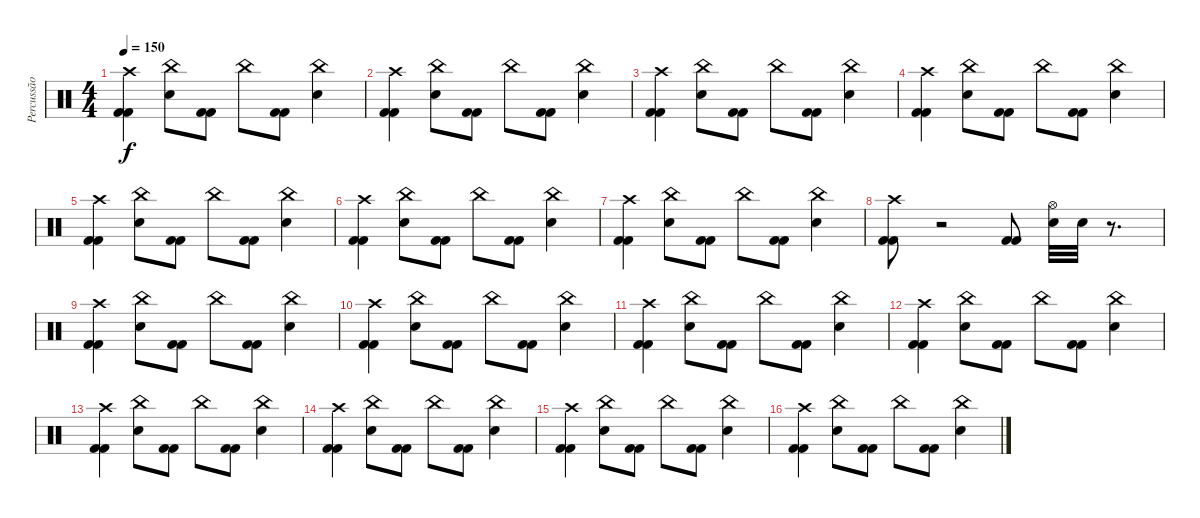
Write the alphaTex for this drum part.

\track ("Percussão" "Percussão") {instrument percussion}
\staff {score}
\articulation defaults
\ts (4 4)
\tempo 150
\clef neutral
\ks c
("Crash high (hit)" "Kick (hit) 2" "Kick (hit) 2").4{dy f} ("China (hit)" "Electric Snare (hit)").8 ("Kick (hit) 2" "Kick (hit) 2").8 "China (hit)".8 ("Kick (hit) 2" "Kick (hit) 2").8 ("China (hit)" "Electric Snare (hit)").4 |
("Crash high (hit)" "Kick (hit) 2" "Kick (hit) 2").4 ("China (hit)" "Electric Snare (hit)").8 ("Kick (hit) 2" "Kick (hit) 2").8 "China (hit)".8 ("Kick (hit) 2" "Kick (hit) 2").8 ("China (hit)" "Electric Snare (hit)").4 |
("Crash high (hit)" "Kick (hit) 2" "Kick (hit) 2").4 ("China (hit)" "Electric Snare (hit)").8 ("Kick (hit) 2" "Kick (hit) 2").8 "China (hit)".8 ("Kick (hit) 2" "Kick (hit) 2").8 ("China (hit)" "Electric Snare (hit)").4 |
("Crash high (hit)" "Kick (hit) 2" "Kick (hit) 2").4 ("China (hit)" "Electric Snare (hit)").8 ("Kick (hit) 2" "Kick (hit) 2").8 "China (hit)".8 ("Kick (hit) 2" "Kick (hit) 2").8 ("China (hit)" "Electric Snare (hit)").4 |
("Crash high (hit)" "Kick (hit) 2" "Kick (hit) 2").4 ("China (hit)" "Electric Snare (hit)").8 ("Kick (hit) 2" "Kick (hit) 2").8 "China (hit)".8 ("Kick (hit) 2" "Kick (hit) 2").8 ("China (hit)" "Electric Snare (hit)").4 |
("Crash high (hit)" "Kick (hit) 2" "Kick (hit) 2").4 ("China (hit)" "Electric Snare (hit)").8 ("Kick (hit) 2" "Kick (hit) 2").8 "China (hit)".8 ("Kick (hit) 2" "Kick (hit) 2").8 ("China (hit)" "Electric Snare (hit)").4 |
("Crash high (hit)" "Kick (hit) 2" "Kick (hit) 2").4 ("China (hit)" "Electric Snare (hit)").8 ("Kick (hit) 2" "Kick (hit) 2").8 "China (hit)".8 ("Kick (hit) 2" "Kick (hit) 2").8 ("China (hit)" "Electric Snare (hit)").4 |
("Crash high (hit)" "Kick (hit) 2" "Kick (hit) 2").8 r.2 ("Kick (hit) 2" "Kick (hit) 2").8 ("Hi-Hat (open)" "Electric Snare (hit)").32 "Electric Snare (hit)".32 r.8{d} |
("Crash high (hit)" "Kick (hit) 2" "Kick (hit) 2").4 ("China (hit)" "Electric Snare (hit)").8 ("Kick (hit) 2" "Kick (hit) 2").8 "China (hit)".8 ("Kick (hit) 2" "Kick (hit) 2").8 ("China (hit)" "Electric Snare (hit)").4 |
("Crash high (hit)" "Kick (hit) 2" "Kick (hit) 2").4 ("China (hit)" "Electric Snare (hit)").8 ("Kick (hit) 2" "Kick (hit) 2").8 "China (hit)".8 ("Kick (hit) 2" "Kick (hit) 2").8 ("China (hit)" "Electric Snare (hit)").4 |
("Crash high (hit)" "Kick (hit) 2" "Kick (hit) 2").4 ("China (hit)" "Electric Snare (hit)").8 ("Kick (hit) 2" "Kick (hit) 2").8 "China (hit)".8 ("Kick (hit) 2" "Kick (hit) 2").8 ("China (hit)" "Electric Snare (hit)").4 |
("Crash high (hit)" "Kick (hit) 2" "Kick (hit) 2").4 ("China (hit)" "Electric Snare (hit)").8 ("Kick (hit) 2" "Kick (hit) 2").8 "China (hit)".8 ("Kick (hit) 2" "Kick (hit) 2").8 ("China (hit)" "Electric Snare (hit)").4 |
("Crash high (hit)" "Kick (hit) 2" "Kick (hit) 2").4 ("China (hit)" "Electric Snare (hit)").8 ("Kick (hit) 2" "Kick (hit) 2").8 "China (hit)".8 ("Kick (hit) 2" "Kick (hit) 2").8 ("China (hit)" "Electric Snare (hit)").4 |
("Crash high (hit)" "Kick (hit) 2" "Kick (hit) 2").4 ("China (hit)" "Electric Snare (hit)").8 ("Kick (hit) 2" "Kick (hit) 2").8 "China (hit)".8 ("Kick (hit) 2" "Kick (hit) 2").8 ("China (hit)" "Electric Snare (hit)").4 |
("Crash high (hit)" "Kick (hit) 2" "Kick (hit) 2").4 ("China (hit)" "Electric Snare (hit)").8 ("Kick (hit) 2" "Kick (hit) 2").8 "China (hit)".8 ("Kick (hit) 2" "Kick (hit) 2").8 ("China (hit)" "Electric Snare (hit)").4 |
("Crash high (hit)" "Kick (hit) 2" "Kick (hit) 2").4 ("China (hit)" "Electric Snare (hit)").8 ("Kick (hit) 2" "Kick (hit) 2").8 "China (hit)".8 ("Kick (hit) 2" "Kick (hit) 2").8 ("China (hit)" "Electric Snare (hit)").4
